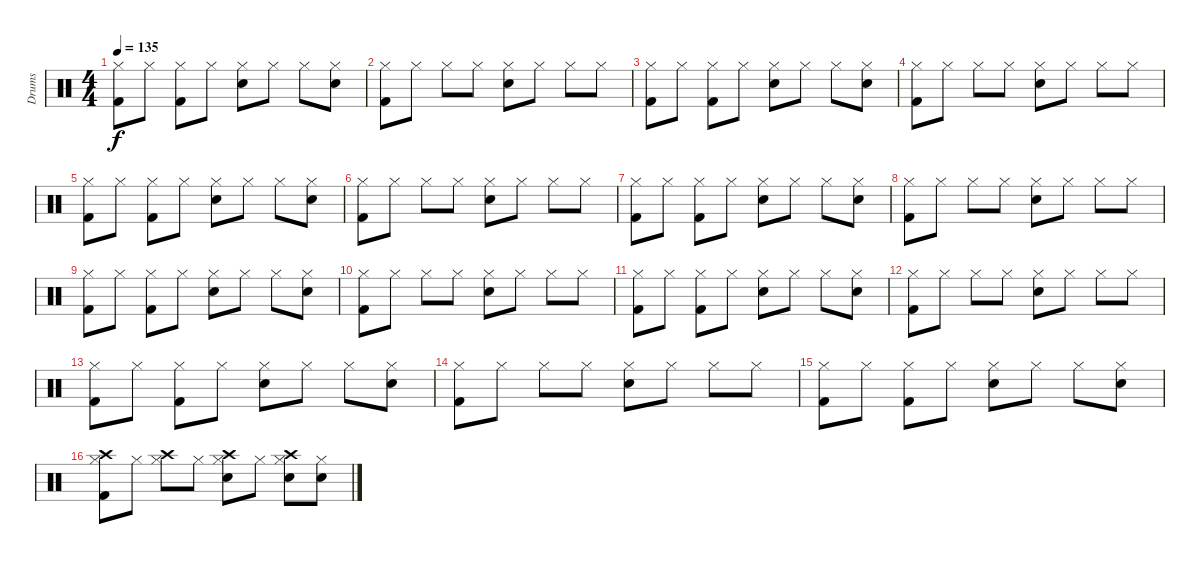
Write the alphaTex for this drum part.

\track ("Drums" "Drums") {instrument percussion}
\staff {score}
\articulation defaults
\ts (4 4)
\tempo 135
\clef neutral
\ks c
("Kick (hit) 2" "Hi-Hat (closed)").8{dy f} "Hi-Hat (closed)".8 ("Kick (hit) 2" "Hi-Hat (closed)").8 "Hi-Hat (closed)".8 ("Snare (hit) 2" "Hi-Hat (closed)").8 "Hi-Hat (closed)".8 "Hi-Hat (closed)".8 ("Snare (hit) 2" "Hi-Hat (closed)").8 |
("Kick (hit) 2" "Hi-Hat (closed)").8 "Hi-Hat (closed)".8 "Hi-Hat (closed)".8 "Hi-Hat (closed)".8 ("Snare (hit) 2" "Hi-Hat (closed)").8 "Hi-Hat (closed)".8 "Hi-Hat (closed)".8 "Hi-Hat (closed)".8 |
("Kick (hit) 2" "Hi-Hat (closed)").8 "Hi-Hat (closed)".8 ("Kick (hit) 2" "Hi-Hat (closed)").8 "Hi-Hat (closed)".8 ("Snare (hit) 2" "Hi-Hat (closed)").8 "Hi-Hat (closed)".8 "Hi-Hat (closed)".8 ("Snare (hit) 2" "Hi-Hat (closed)").8 |
("Kick (hit) 2" "Hi-Hat (closed)").8 "Hi-Hat (closed)".8 "Hi-Hat (closed)".8 "Hi-Hat (closed)".8 ("Snare (hit) 2" "Hi-Hat (closed)").8 "Hi-Hat (closed)".8 "Hi-Hat (closed)".8 "Hi-Hat (closed)".8 |
("Kick (hit) 2" "Hi-Hat (closed)").8 "Hi-Hat (closed)".8 ("Kick (hit) 2" "Hi-Hat (closed)").8 "Hi-Hat (closed)".8 ("Snare (hit) 2" "Hi-Hat (closed)").8 "Hi-Hat (closed)".8 "Hi-Hat (closed)".8 ("Snare (hit) 2" "Hi-Hat (closed)").8 |
("Kick (hit) 2" "Hi-Hat (closed)").8 "Hi-Hat (closed)".8 "Hi-Hat (closed)".8 "Hi-Hat (closed)".8 ("Snare (hit) 2" "Hi-Hat (closed)").8 "Hi-Hat (closed)".8 "Hi-Hat (closed)".8 "Hi-Hat (closed)".8 |
("Kick (hit) 2" "Hi-Hat (closed)").8 "Hi-Hat (closed)".8 ("Kick (hit) 2" "Hi-Hat (closed)").8 "Hi-Hat (closed)".8 ("Snare (hit) 2" "Hi-Hat (closed)").8 "Hi-Hat (closed)".8 "Hi-Hat (closed)".8 ("Snare (hit) 2" "Hi-Hat (closed)").8 |
("Kick (hit) 2" "Hi-Hat (closed)").8 "Hi-Hat (closed)".8 "Hi-Hat (closed)".8 "Hi-Hat (closed)".8 ("Snare (hit) 2" "Hi-Hat (closed)").8 "Hi-Hat (closed)".8 "Hi-Hat (closed)".8 "Hi-Hat (closed)".8 |
("Kick (hit) 2" "Hi-Hat (closed)").8 "Hi-Hat (closed)".8 ("Kick (hit) 2" "Hi-Hat (closed)").8 "Hi-Hat (closed)".8 ("Snare (hit) 2" "Hi-Hat (closed)").8 "Hi-Hat (closed)".8 "Hi-Hat (closed)".8 ("Snare (hit) 2" "Hi-Hat (closed)").8 |
("Kick (hit) 2" "Hi-Hat (closed)").8 "Hi-Hat (closed)".8 "Hi-Hat (closed)".8 "Hi-Hat (closed)".8 ("Snare (hit) 2" "Hi-Hat (closed)").8 "Hi-Hat (closed)".8 "Hi-Hat (closed)".8 "Hi-Hat (closed)".8 |
("Kick (hit) 2" "Hi-Hat (closed)").8 "Hi-Hat (closed)".8 ("Kick (hit) 2" "Hi-Hat (closed)").8 "Hi-Hat (closed)".8 ("Snare (hit) 2" "Hi-Hat (closed)").8 "Hi-Hat (closed)".8 "Hi-Hat (closed)".8 ("Snare (hit) 2" "Hi-Hat (closed)").8 |
("Kick (hit) 2" "Hi-Hat (closed)").8 "Hi-Hat (closed)".8 "Hi-Hat (closed)".8 "Hi-Hat (closed)".8 ("Snare (hit) 2" "Hi-Hat (closed)").8 "Hi-Hat (closed)".8 "Hi-Hat (closed)".8 "Hi-Hat (closed)".8 |
("Kick (hit) 2" "Hi-Hat (closed)").8 "Hi-Hat (closed)".8 ("Kick (hit) 2" "Hi-Hat (closed)").8 "Hi-Hat (closed)".8 ("Snare (hit) 2" "Hi-Hat (closed)").8 "Hi-Hat (closed)".8 "Hi-Hat (closed)".8 ("Snare (hit) 2" "Hi-Hat (closed)").8 |
("Kick (hit) 2" "Hi-Hat (closed)").8 "Hi-Hat (closed)".8 "Hi-Hat (closed)".8 "Hi-Hat (closed)".8 ("Snare (hit) 2" "Hi-Hat (closed)").8 "Hi-Hat (closed)".8 "Hi-Hat (closed)".8 "Hi-Hat (closed)".8 |
("Kick (hit) 2" "Hi-Hat (closed)").8 "Hi-Hat (closed)".8 ("Kick (hit) 2" "Hi-Hat (closed)").8 "Hi-Hat (closed)".8 ("Snare (hit) 2" "Hi-Hat (closed)").8 "Hi-Hat (closed)".8 "Hi-Hat (closed)".8 ("Snare (hit) 2" "Hi-Hat (closed)").8 |
("Kick (hit) 2" "Hi-Hat (closed)" "Crash high (hit)").8 "Hi-Hat (closed)".8 ("Hi-Hat (closed)" "Crash high (hit)").8 "Hi-Hat (closed)".8 ("Snare (hit) 2" "Hi-Hat (closed)" "Crash high (hit)").8 "Hi-Hat (closed)".8 ("Snare (hit) 2" "Hi-Hat (closed)" "Crash high (hit)").8 ("Snare (hit) 2" "Hi-Hat (closed)").8
